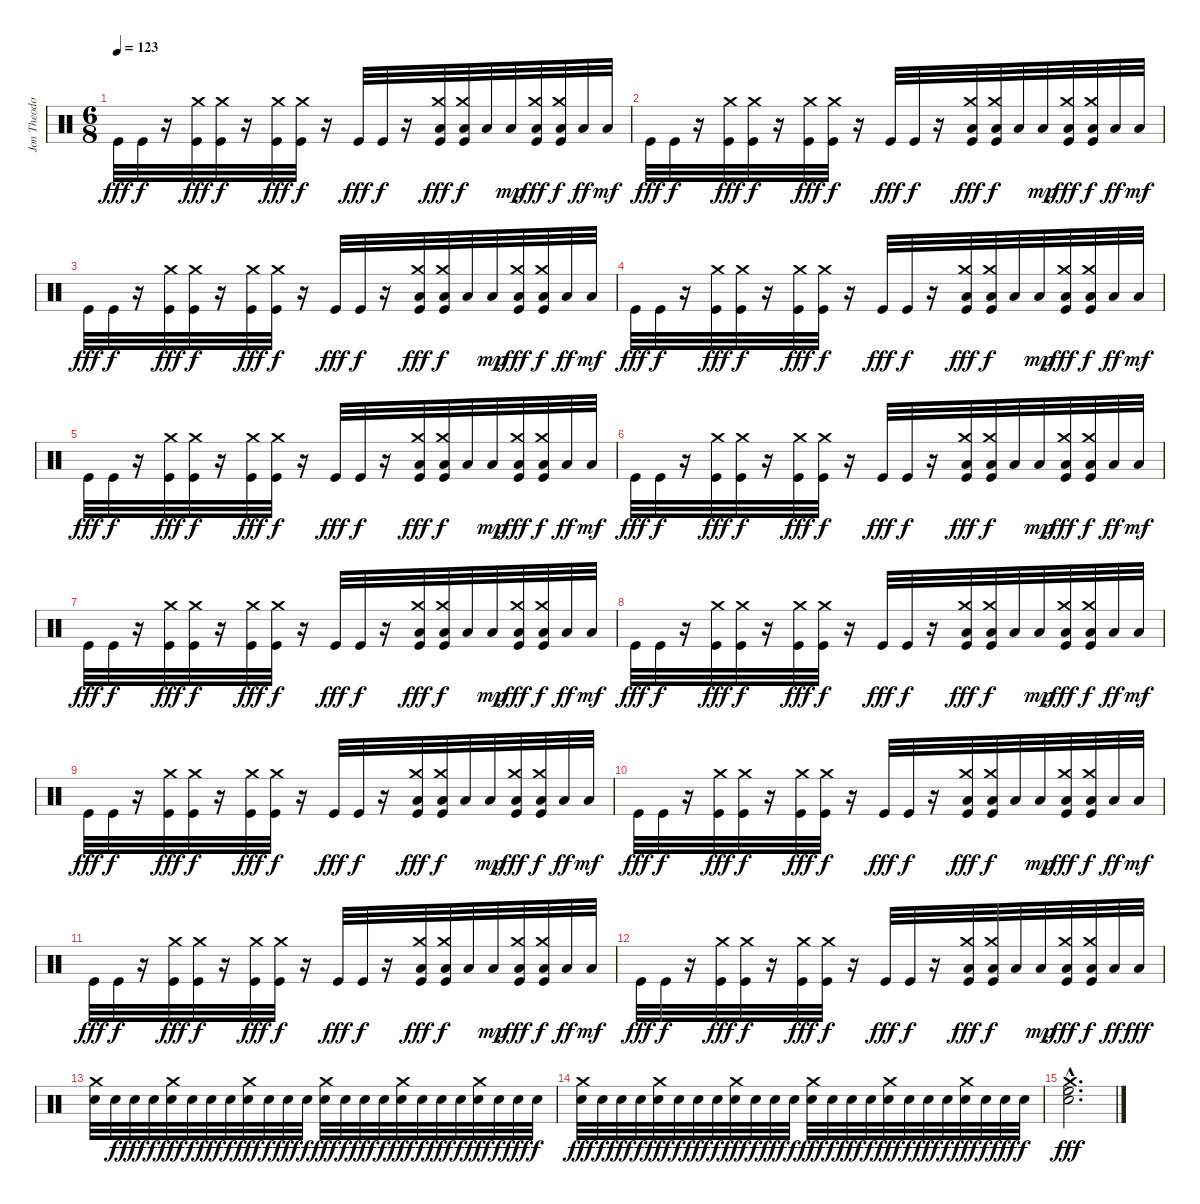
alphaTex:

\track ("Jon Theodore - Drums" "Jon Theodo") {instrument percussion}
\staff {score}
\articulation defaults
\ts (6 8)
\tempo 123
\clef neutral
\ks c "Kick (hit)".32{dy fff} "Kick (hit)".32{dy f}
r.16 ("Crash medium (hit)" "Kick (hit)").32{dy fff} ("Crash medium (hit)" "Kick (hit)").32{dy f} r.16 ("Crash medium (hit)" "Kick (hit)").32{dy fff} ("Crash medium (hit)" "Kick (hit)").32{dy f} r.16 "Kick (hit)".32{dy fff} "Kick (hit)".32{dy f} r.16 ("Crash medium (hit)" "Low Tom (hit)" "Kick (hit)").32{dy fff} ("Crash medium (hit)" "Low Tom (hit)" "Kick (hit)").32{dy f} "Low Tom (hit)".32 "Low Tom (hit)".32{dy mp} ("Crash medium (hit)" "Low Tom (hit)" "Kick (hit)").32{dy fff} ("Crash medium (hit)" "Low Tom (hit)" "Kick (hit)").32{dy f} "Low Tom (hit)".32{dy ff} "Low Tom (hit)".32{dy mf} |
"Kick (hit)".32{dy fff} "Kick (hit)".32{dy f} r.16 ("Crash medium (hit)" "Kick (hit)").32{dy fff} ("Crash medium (hit)" "Kick (hit)").32{dy f} r.16 ("Crash medium (hit)" "Kick (hit)").32{dy fff} ("Crash medium (hit)" "Kick (hit)").32{dy f} r.16 "Kick (hit)".32{dy fff} "Kick (hit)".32{dy f} r.16 ("Crash medium (hit)" "Low Tom (hit)" "Kick (hit)").32{dy fff} ("Crash medium (hit)" "Low Tom (hit)" "Kick (hit)").32{dy f} "Low Tom (hit)".32 "Low Tom (hit)".32{dy mp} ("Crash medium (hit)" "Low Tom (hit)" "Kick (hit)").32{dy fff} ("Crash medium (hit)" "Low Tom (hit)" "Kick (hit)").32{dy f} "Low Tom (hit)".32{dy ff} "Low Tom (hit)".32{dy mf} |
"Kick (hit)".32{dy fff} "Kick (hit)".32{dy f} r.16 ("Crash medium (hit)" "Kick (hit)").32{dy fff} ("Crash medium (hit)" "Kick (hit)").32{dy f} r.16 ("Crash medium (hit)" "Kick (hit)").32{dy fff} ("Crash medium (hit)" "Kick (hit)").32{dy f} r.16 "Kick (hit)".32{dy fff} "Kick (hit)".32{dy f} r.16 ("Crash medium (hit)" "Low Tom (hit)" "Kick (hit)").32{dy fff} ("Crash medium (hit)" "Low Tom (hit)" "Kick (hit)").32{dy f} "Low Tom (hit)".32 "Low Tom (hit)".32{dy mp} ("Crash medium (hit)" "Low Tom (hit)" "Kick (hit)").32{dy fff} ("Crash medium (hit)" "Low Tom (hit)" "Kick (hit)").32{dy f} "Low Tom (hit)".32{dy ff} "Low Tom (hit)".32{dy mf} |
"Kick (hit)".32{dy fff} "Kick (hit)".32{dy f} r.16 ("Crash medium (hit)" "Kick (hit)").32{dy fff} ("Crash medium (hit)" "Kick (hit)").32{dy f} r.16 ("Crash medium (hit)" "Kick (hit)").32{dy fff} ("Crash medium (hit)" "Kick (hit)").32{dy f} r.16 "Kick (hit)".32{dy fff} "Kick (hit)".32{dy f} r.16 ("Crash medium (hit)" "Low Tom (hit)" "Kick (hit)").32{dy fff} ("Crash medium (hit)" "Low Tom (hit)" "Kick (hit)").32{dy f} "Low Tom (hit)".32 "Low Tom (hit)".32{dy mp} ("Crash medium (hit)" "Low Tom (hit)" "Kick (hit)").32{dy fff} ("Crash medium (hit)" "Low Tom (hit)" "Kick (hit)").32{dy f} "Low Tom (hit)".32{dy ff} "Low Tom (hit)".32{dy mf} |
"Kick (hit)".32{dy fff} "Kick (hit)".32{dy f} r.16 ("Crash medium (hit)" "Kick (hit)").32{dy fff} ("Crash medium (hit)" "Kick (hit)").32{dy f} r.16 ("Crash medium (hit)" "Kick (hit)").32{dy fff} ("Crash medium (hit)" "Kick (hit)").32{dy f} r.16 "Kick (hit)".32{dy fff} "Kick (hit)".32{dy f} r.16 ("Crash medium (hit)" "Low Tom (hit)" "Kick (hit)").32{dy fff} ("Crash medium (hit)" "Low Tom (hit)" "Kick (hit)").32{dy f} "Low Tom (hit)".32 "Low Tom (hit)".32{dy mp} ("Crash medium (hit)" "Low Tom (hit)" "Kick (hit)").32{dy fff} ("Crash medium (hit)" "Low Tom (hit)" "Kick (hit)").32{dy f} "Low Tom (hit)".32{dy ff} "Low Tom (hit)".32{dy mf} |
"Kick (hit)".32{dy fff} "Kick (hit)".32{dy f} r.16 ("Crash medium (hit)" "Kick (hit)").32{dy fff} ("Crash medium (hit)" "Kick (hit)").32{dy f} r.16 ("Crash medium (hit)" "Kick (hit)").32{dy fff} ("Crash medium (hit)" "Kick (hit)").32{dy f} r.16 "Kick (hit)".32{dy fff} "Kick (hit)".32{dy f} r.16 ("Crash medium (hit)" "Low Tom (hit)" "Kick (hit)").32{dy fff} ("Crash medium (hit)" "Low Tom (hit)" "Kick (hit)").32{dy f} "Low Tom (hit)".32 "Low Tom (hit)".32{dy mp} ("Crash medium (hit)" "Low Tom (hit)" "Kick (hit)").32{dy fff} ("Crash medium (hit)" "Low Tom (hit)" "Kick (hit)").32{dy f} "Low Tom (hit)".32{dy ff} "Low Tom (hit)".32{dy mf} |
"Kick (hit)".32{dy fff} "Kick (hit)".32{dy f} r.16 ("Crash medium (hit)" "Kick (hit)").32{dy fff} ("Crash medium (hit)" "Kick (hit)").32{dy f} r.16 ("Crash medium (hit)" "Kick (hit)").32{dy fff} ("Crash medium (hit)" "Kick (hit)").32{dy f} r.16 "Kick (hit)".32{dy fff} "Kick (hit)".32{dy f} r.16 ("Crash medium (hit)" "Low Tom (hit)" "Kick (hit)").32{dy fff} ("Crash medium (hit)" "Low Tom (hit)" "Kick (hit)").32{dy f} "Low Tom (hit)".32 "Low Tom (hit)".32{dy mp} ("Crash medium (hit)" "Low Tom (hit)" "Kick (hit)").32{dy fff} ("Crash medium (hit)" "Low Tom (hit)" "Kick (hit)").32{dy f} "Low Tom (hit)".32{dy ff} "Low Tom (hit)".32{dy mf} |
"Kick (hit)".32{dy fff} "Kick (hit)".32{dy f} r.16 ("Crash medium (hit)" "Kick (hit)").32{dy fff} ("Crash medium (hit)" "Kick (hit)").32{dy f} r.16 ("Crash medium (hit)" "Kick (hit)").32{dy fff} ("Crash medium (hit)" "Kick (hit)").32{dy f} r.16 "Kick (hit)".32{dy fff} "Kick (hit)".32{dy f} r.16 ("Crash medium (hit)" "Low Tom (hit)" "Kick (hit)").32{dy fff} ("Crash medium (hit)" "Low Tom (hit)" "Kick (hit)").32{dy f} "Low Tom (hit)".32 "Low Tom (hit)".32{dy mp} ("Crash medium (hit)" "Low Tom (hit)" "Kick (hit)").32{dy fff} ("Crash medium (hit)" "Low Tom (hit)" "Kick (hit)").32{dy f} "Low Tom (hit)".32{dy ff} "Low Tom (hit)".32{dy mf} |
"Kick (hit)".32{dy fff} "Kick (hit)".32{dy f} r.16 ("Crash medium (hit)" "Kick (hit)").32{dy fff} ("Crash medium (hit)" "Kick (hit)").32{dy f} r.16 ("Crash medium (hit)" "Kick (hit)").32{dy fff} ("Crash medium (hit)" "Kick (hit)").32{dy f} r.16 "Kick (hit)".32{dy fff} "Kick (hit)".32{dy f} r.16 ("Crash medium (hit)" "Low Tom (hit)" "Kick (hit)").32{dy fff} ("Crash medium (hit)" "Low Tom (hit)" "Kick (hit)").32{dy f} "Low Tom (hit)".32 "Low Tom (hit)".32{dy mp} ("Crash medium (hit)" "Low Tom (hit)" "Kick (hit)").32{dy fff} ("Crash medium (hit)" "Low Tom (hit)" "Kick (hit)").32{dy f} "Low Tom (hit)".32{dy ff} "Low Tom (hit)".32{dy mf} |
"Kick (hit)".32{dy fff} "Kick (hit)".32{dy f} r.16 ("Crash medium (hit)" "Kick (hit)").32{dy fff} ("Crash medium (hit)" "Kick (hit)").32{dy f} r.16 ("Crash medium (hit)" "Kick (hit)").32{dy fff} ("Crash medium (hit)" "Kick (hit)").32{dy f} r.16 "Kick (hit)".32{dy fff} "Kick (hit)".32{dy f} r.16 ("Crash medium (hit)" "Low Tom (hit)" "Kick (hit)").32{dy fff} ("Crash medium (hit)" "Low Tom (hit)" "Kick (hit)").32{dy f} "Low Tom (hit)".32 "Low Tom (hit)".32{dy mp} ("Crash medium (hit)" "Low Tom (hit)" "Kick (hit)").32{dy fff} ("Crash medium (hit)" "Low Tom (hit)" "Kick (hit)").32{dy f} "Low Tom (hit)".32{dy ff} "Low Tom (hit)".32{dy mf} |
"Kick (hit)".32{dy fff} "Kick (hit)".32{dy f} r.16 ("Crash medium (hit)" "Kick (hit)").32{dy fff} ("Crash medium (hit)" "Kick (hit)").32{dy f} r.16 ("Crash medium (hit)" "Kick (hit)").32{dy fff} ("Crash medium (hit)" "Kick (hit)").32{dy f} r.16 "Kick (hit)".32{dy fff} "Kick (hit)".32{dy f} r.16 ("Crash medium (hit)" "Low Tom (hit)" "Kick (hit)").32{dy fff} ("Crash medium (hit)" "Low Tom (hit)" "Kick (hit)").32{dy f} "Low Tom (hit)".32 "Low Tom (hit)".32{dy mp} ("Crash medium (hit)" "Low Tom (hit)" "Kick (hit)").32{dy fff} ("Crash medium (hit)" "Low Tom (hit)" "Kick (hit)").32{dy f} "Low Tom (hit)".32{dy ff} "Low Tom (hit)".32{dy mf} |
"Kick (hit)".32{dy fff} "Kick (hit)".32{dy f} r.16 ("Crash medium (hit)" "Kick (hit)").32{dy fff} ("Crash medium (hit)" "Kick (hit)").32{dy f} r.16 ("Crash medium (hit)" "Kick (hit)").32{dy fff} ("Crash medium (hit)" "Kick (hit)").32{dy f} r.16 "Kick (hit)".32{dy fff} "Kick (hit)".32{dy f} r.16 ("Crash medium (hit)" "Low Tom (hit)" "Kick (hit)").32{dy fff} ("Crash medium (hit)" "Low Tom (hit)" "Kick (hit)").32{dy f} "Low Tom (hit)".32 "Low Tom (hit)".32{dy mp} ("Crash medium (hit)" "Low Tom (hit)" "Kick (hit)").32{dy fff} ("Crash medium (hit)" "Low Tom (hit)" "Kick (hit)").32{dy f} "Low Tom (hit)".32{dy ff} "Low Tom (hit)".32{dy fff} |
("Crash medium (hit)" "Snare (hit) 2").32 "Snare (hit) 2".32{dy f} "Snare (hit) 2".32{dy fff} "Snare (hit) 2".32{dy f} ("Crash medium (hit)" "Snare (hit) 2").32{dy fff} "Snare (hit) 2".32{dy f} "Snare (hit) 2".32{dy fff} "Snare (hit) 2".32{dy f} ("Crash medium (hit)" "Snare (hit) 2").32{dy fff} "Snare (hit) 2".32{dy f} "Snare (hit) 2".32{dy fff} "Snare (hit) 2".32{dy f} ("Crash medium (hit)" "Snare (hit) 2").32{dy fff} "Snare (hit) 2".32{dy f} "Snare (hit) 2".32{dy fff} "Snare (hit) 2".32{dy f} ("Crash medium (hit)" "Snare (hit) 2").32{dy fff} "Snare (hit) 2".32{dy f} "Snare (hit) 2".32{dy fff} "Snare (hit) 2".32{dy f} ("Crash medium (hit)" "Snare (hit) 2").32{dy fff} "Snare (hit) 2".32{dy f} "Snare (hit) 2".32{dy fff} "Snare (hit) 2".32{dy f} |
("Crash medium (hit)" "Snare (hit) 2").32{dy fff} "Snare (hit) 2".32{dy f} "Snare (hit) 2".32{dy fff} "Snare (hit) 2".32{dy f} ("Crash medium (hit)" "Snare (hit) 2").32{dy fff} "Snare (hit) 2".32{dy f} "Snare (hit) 2".32{dy fff} "Snare (hit) 2".32{dy f} ("Crash medium (hit)" "Snare (hit) 2").32{dy fff} "Snare (hit) 2".32{dy f} "Snare (hit) 2".32{dy fff} "Snare (hit) 2".32{dy f} ("Crash medium (hit)" "Snare (hit) 2").32{dy fff} "Snare (hit) 2".32{dy f} "Snare (hit) 2".32{dy fff} "Snare (hit) 2".32{dy f} ("Crash medium (hit)" "Snare (hit) 2").32{dy fff} "Snare (hit) 2".32{dy f} "Snare (hit) 2".32{dy fff} "Snare (hit) 2".32{dy f} ("Crash medium (hit)" "Snare (hit) 2").32{dy fff} "Snare (hit) 2".32{dy f} "Snare (hit) 2".32{dy fff} "Snare (hit) 2".32{dy f} |
("Crash medium (hit)"{hac} "High Floor Tom (hit)"{hac} "Snare (hit) 2"{hac}).2{d dy fff}
